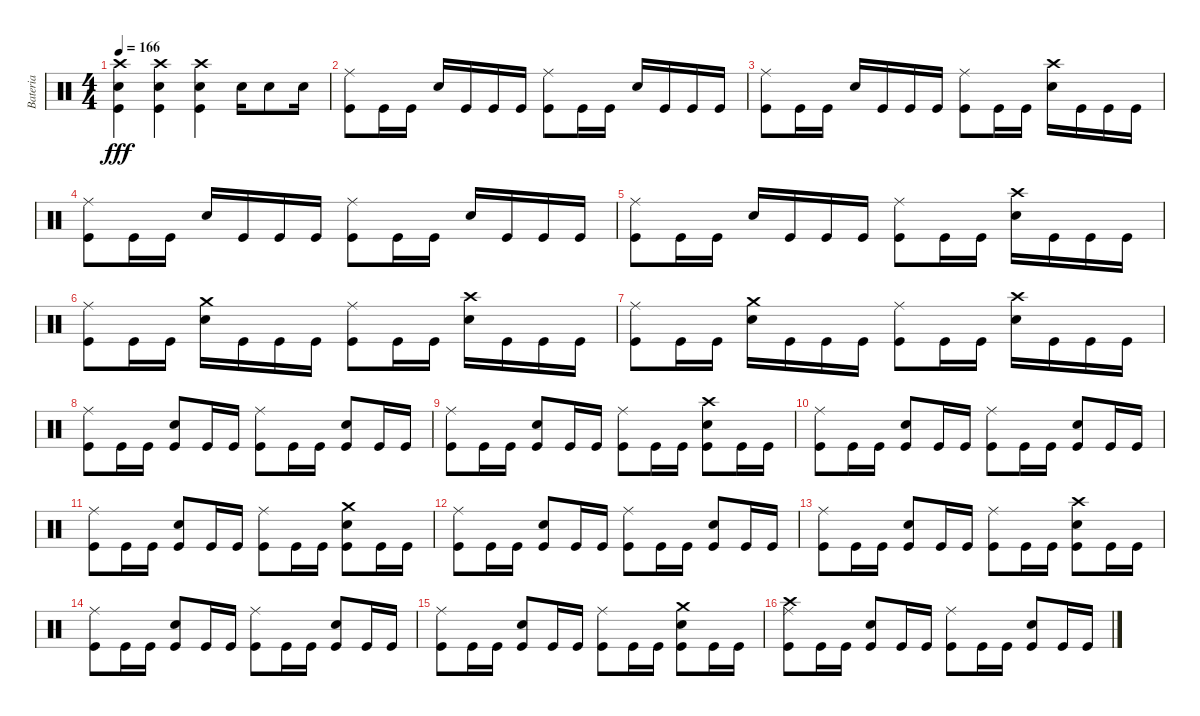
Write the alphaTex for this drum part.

\track ("Bateria" "Bateria") {instrument percussion}
\staff {score}
\articulation defaults
\ts (4 4)
\tempo 166
\clef neutral
\ks c
("Crash high (hit)" "Snare (hit) 2" "Kick (hit)").4{dy fff} ("Crash high (hit)" "Snare (hit) 2" "Kick (hit)").4 ("Crash high (hit)" "Snare (hit) 2" "Kick (hit)").4 "Snare (hit) 2".16 "Snare (hit) 2".8 "Snare (hit) 2".16 |
("Ride (middle)" "Kick (hit)").8 "Kick (hit)".16 "Kick (hit)".16 "Snare (hit) 2".16 "Kick (hit)".16 "Kick (hit)".16 "Kick (hit)".16 ("Ride (middle)" "Kick (hit)").8 "Kick (hit)".16 "Kick (hit)".16 "Snare (hit) 2".16 "Kick (hit)".16 "Kick (hit)".16 "Kick (hit)".16 |
("Ride (middle)" "Kick (hit)").8 "Kick (hit)".16 "Kick (hit)".16 "Snare (hit) 2".16 "Kick (hit)".16 "Kick (hit)".16 "Kick (hit)".16 ("Ride (middle)" "Kick (hit)").8 "Kick (hit)".16 "Kick (hit)".16 ("Crash high (hit)" "Snare (hit) 2").16 "Kick (hit)".16 "Kick (hit)".16 "Kick (hit)".16 |
("Ride (middle)" "Kick (hit)").8 "Kick (hit)".16 "Kick (hit)".16 "Snare (hit) 2".16 "Kick (hit)".16 "Kick (hit)".16 "Kick (hit)".16 ("Ride (middle)" "Kick (hit)").8 "Kick (hit)".16 "Kick (hit)".16 "Snare (hit) 2".16 "Kick (hit)".16 "Kick (hit)".16 "Kick (hit)".16 |
("Ride (middle)" "Kick (hit)").8 "Kick (hit)".16 "Kick (hit)".16 "Snare (hit) 2".16 "Kick (hit)".16 "Kick (hit)".16 "Kick (hit)".16 ("Ride (middle)" "Kick (hit)").8 "Kick (hit)".16 "Kick (hit)".16 ("Crash high (hit)" "Snare (hit) 2").16 "Kick (hit)".16 "Kick (hit)".16 "Kick (hit)".16 |
("Ride (middle)" "Kick (hit)").8 "Kick (hit)".16 "Kick (hit)".16 ("Snare (hit) 2" "Crash medium (hit)").16 "Kick (hit)".16 "Kick (hit)".16 "Kick (hit)".16 ("Ride (middle)" "Kick (hit)").8 "Kick (hit)".16 "Kick (hit)".16 ("Crash high (hit)" "Snare (hit) 2").16 "Kick (hit)".16 "Kick (hit)".16 "Kick (hit)".16 |
("Ride (middle)" "Kick (hit)").8 "Kick (hit)".16 "Kick (hit)".16 ("Snare (hit) 2" "Crash medium (hit)").16 "Kick (hit)".16 "Kick (hit)".16 "Kick (hit)".16 ("Ride (middle)" "Kick (hit)").8 "Kick (hit)".16 "Kick (hit)".16 ("Crash high (hit)" "Snare (hit) 2").16 "Kick (hit)".16 "Kick (hit)".16 "Kick (hit)".16 |
("Ride (middle)" "Kick (hit)").8 "Kick (hit)".16 "Kick (hit)".16 ("Snare (hit) 2" "Kick (hit)").8 "Kick (hit)".16 "Kick (hit)".16 ("Ride (middle)" "Kick (hit)").8 "Kick (hit)".16 "Kick (hit)".16 ("Snare (hit) 2" "Kick (hit)").8 "Kick (hit)".16 "Kick (hit)".16 |
("Ride (middle)" "Kick (hit)").8 "Kick (hit)".16 "Kick (hit)".16 ("Snare (hit) 2" "Kick (hit)").8 "Kick (hit)".16 "Kick (hit)".16 ("Ride (middle)" "Kick (hit)").8 "Kick (hit)".16 "Kick (hit)".16 ("Snare (hit) 2" "Kick (hit)" "Crash high (hit)").8 "Kick (hit)".16 "Kick (hit)".16 |
("Ride (middle)" "Kick (hit)").8 "Kick (hit)".16 "Kick (hit)".16 ("Snare (hit) 2" "Kick (hit)").8 "Kick (hit)".16 "Kick (hit)".16 ("Ride (middle)" "Kick (hit)").8 "Kick (hit)".16 "Kick (hit)".16 ("Snare (hit) 2" "Kick (hit)").8 "Kick (hit)".16 "Kick (hit)".16 |
("Ride (middle)" "Kick (hit)").8 "Kick (hit)".16 "Kick (hit)".16 ("Snare (hit) 2" "Kick (hit)").8 "Kick (hit)".16 "Kick (hit)".16 ("Ride (middle)" "Kick (hit)").8 "Kick (hit)".16 "Kick (hit)".16 ("Snare (hit) 2" "Kick (hit)" "Crash medium (hit)").8 "Kick (hit)".16 "Kick (hit)".16 |
("Ride (middle)" "Kick (hit)").8 "Kick (hit)".16 "Kick (hit)".16 ("Snare (hit) 2" "Kick (hit)").8 "Kick (hit)".16 "Kick (hit)".16 ("Ride (middle)" "Kick (hit)").8 "Kick (hit)".16 "Kick (hit)".16 ("Snare (hit) 2" "Kick (hit)").8 "Kick (hit)".16 "Kick (hit)".16 |
("Ride (middle)" "Kick (hit)").8 "Kick (hit)".16 "Kick (hit)".16 ("Snare (hit) 2" "Kick (hit)").8 "Kick (hit)".16 "Kick (hit)".16 ("Ride (middle)" "Kick (hit)").8 "Kick (hit)".16 "Kick (hit)".16 ("Snare (hit) 2" "Kick (hit)" "Crash high (hit)").8 "Kick (hit)".16 "Kick (hit)".16 |
("Ride (middle)" "Kick (hit)").8 "Kick (hit)".16 "Kick (hit)".16 ("Snare (hit) 2" "Kick (hit)").8 "Kick (hit)".16 "Kick (hit)".16 ("Ride (middle)" "Kick (hit)").8 "Kick (hit)".16 "Kick (hit)".16 ("Snare (hit) 2" "Kick (hit)").8 "Kick (hit)".16 "Kick (hit)".16 |
("Ride (middle)" "Kick (hit)").8 "Kick (hit)".16 "Kick (hit)".16 ("Snare (hit) 2" "Kick (hit)").8 "Kick (hit)".16 "Kick (hit)".16 ("Ride (middle)" "Kick (hit)").8 "Kick (hit)".16 "Kick (hit)".16 ("Snare (hit) 2" "Kick (hit)" "Crash medium (hit)").8 "Kick (hit)".16 "Kick (hit)".16 |
("Ride (middle)" "Kick (hit)" "Crash high (hit)").8 "Kick (hit)".16 "Kick (hit)".16 ("Snare (hit) 2" "Kick (hit)").8 "Kick (hit)".16 "Kick (hit)".16 ("Ride (middle)" "Kick (hit)").8 "Kick (hit)".16 "Kick (hit)".16 ("Snare (hit) 2" "Kick (hit)").8 "Kick (hit)".16 "Kick (hit)".16
